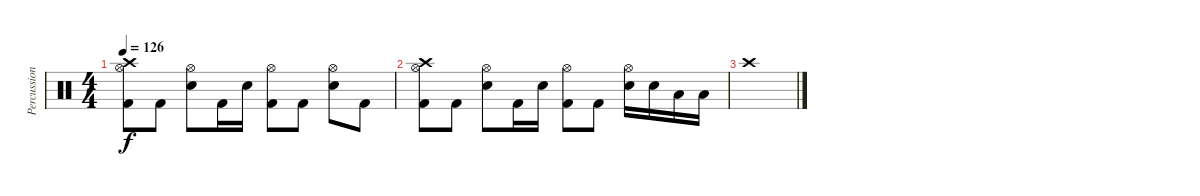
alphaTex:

\track ("Percussion" "Percussion") {instrument percussion}
\staff {score}
\articulation defaults
\ts (4 4)
\tempo 126
\clef neutral
\ks c
("Crash high (hit)" "Hi-Hat (open)" "Kick (hit) 2").8{dy f} "Kick (hit) 2".8 ("Hi-Hat (open)" "Electric Snare (hit)").8 "Kick (hit) 2".16 "Electric Snare (hit)".16 ("Hi-Hat (open)" "Kick (hit) 2").8 "Kick (hit) 2".8 ("Hi-Hat (open)" "Electric Snare (hit)").8 "Kick (hit) 2".8 |
("Crash high (hit)" "Hi-Hat (open)" "Kick (hit) 2").8 "Kick (hit) 2".8 ("Hi-Hat (open)" "Electric Snare (hit)").8 "Kick (hit) 2".16 "Electric Snare (hit)".16 ("Hi-Hat (open)" "Kick (hit) 2").8 "Kick (hit) 2".8 ("Hi-Hat (open)" "Electric Snare (hit)").16 "Electric Snare (hit)".16 "Low Tom (hit)".16 "Low Tom (hit)".16 |
"Crash high (hit)".1
